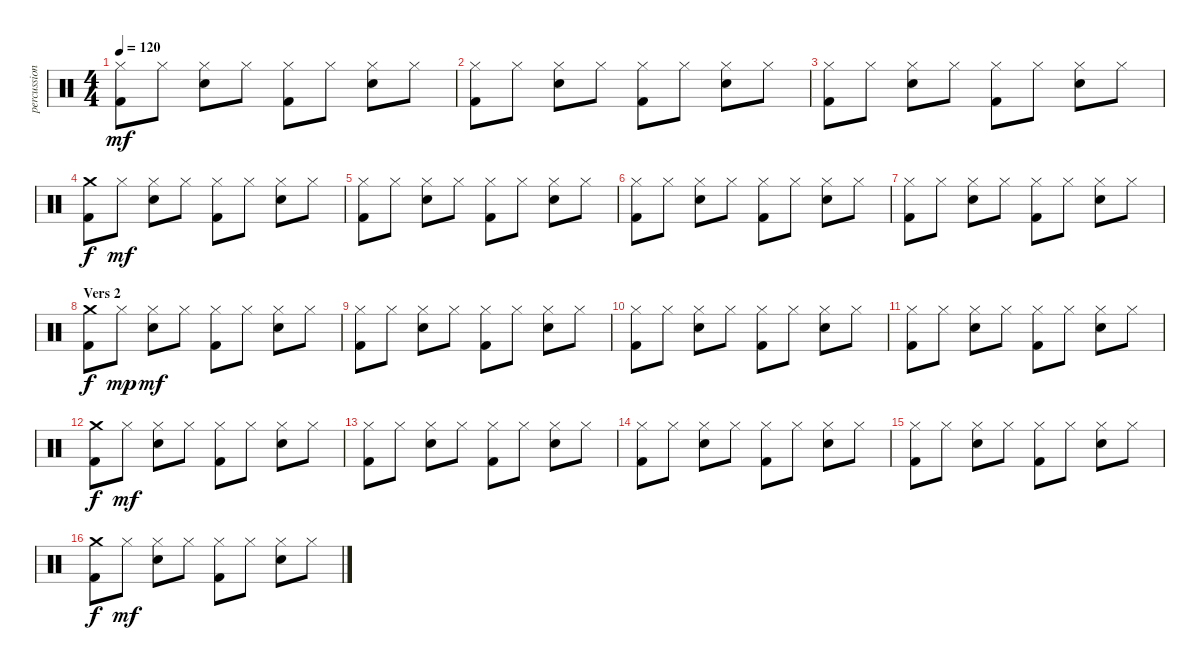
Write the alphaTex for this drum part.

\track ("percussion" "percussion") {instrument percussion}
\staff {score}
\articulation defaults
\ts (4 4)
\tempo 120
\clef neutral
\ks c
("Hi-Hat (closed)" "Kick (hit) 2").8{dy mf} "Hi-Hat (closed)".8 ("Hi-Hat (closed)" "Electric Snare (hit)").8 "Hi-Hat (closed)".8 ("Hi-Hat (closed)" "Kick (hit) 2").8 "Hi-Hat (closed)".8 ("Hi-Hat (closed)" "Electric Snare (hit)").8 "Hi-Hat (closed)".8 |
("Hi-Hat (closed)" "Kick (hit) 2").8 "Hi-Hat (closed)".8 ("Hi-Hat (closed)" "Electric Snare (hit)").8 "Hi-Hat (closed)".8 ("Hi-Hat (closed)" "Kick (hit) 2").8 "Hi-Hat (closed)".8 ("Hi-Hat (closed)" "Electric Snare (hit)").8 "Hi-Hat (closed)".8 |
("Hi-Hat (closed)" "Kick (hit) 2").8 "Hi-Hat (closed)".8 ("Hi-Hat (closed)" "Electric Snare (hit)").8 "Hi-Hat (closed)".8 ("Hi-Hat (closed)" "Kick (hit) 2").8 "Hi-Hat (closed)".8 ("Hi-Hat (closed)" "Electric Snare (hit)").8 "Hi-Hat (closed)".8 |
("Crash medium (hit)" "Kick (hit) 2").8{dy f} "Hi-Hat (closed)".8{dy mf} ("Hi-Hat (closed)" "Electric Snare (hit)").8 "Hi-Hat (closed)".8 ("Hi-Hat (closed)" "Kick (hit) 2").8 "Hi-Hat (closed)".8 ("Hi-Hat (closed)" "Electric Snare (hit)").8 "Hi-Hat (closed)".8 |
("Hi-Hat (closed)" "Kick (hit) 2").8 "Hi-Hat (closed)".8 ("Hi-Hat (closed)" "Electric Snare (hit)").8 "Hi-Hat (closed)".8 ("Hi-Hat (closed)" "Kick (hit) 2").8 "Hi-Hat (closed)".8 ("Hi-Hat (closed)" "Electric Snare (hit)").8 "Hi-Hat (closed)".8 |
("Hi-Hat (closed)" "Kick (hit) 2").8 "Hi-Hat (closed)".8 ("Hi-Hat (closed)" "Electric Snare (hit)").8 "Hi-Hat (closed)".8 ("Hi-Hat (closed)" "Kick (hit) 2").8 "Hi-Hat (closed)".8 ("Hi-Hat (closed)" "Electric Snare (hit)").8 "Hi-Hat (closed)".8 |
("Hi-Hat (closed)" "Kick (hit) 2").8 "Hi-Hat (closed)".8 ("Hi-Hat (closed)" "Electric Snare (hit)").8 "Hi-Hat (closed)".8 ("Hi-Hat (closed)" "Kick (hit) 2").8 "Hi-Hat (closed)".8 ("Hi-Hat (closed)" "Electric Snare (hit)").8 "Hi-Hat (closed)".8 |
\section ("" "Vers 2")
("Crash medium (hit)" "Kick (hit) 2").8{dy f} "Hi-Hat (closed)".8{dy mp} ("Hi-Hat (closed)" "Electric Snare (hit)").8{dy mf} "Hi-Hat (closed)".8 ("Hi-Hat (closed)" "Kick (hit) 2").8 "Hi-Hat (closed)".8 ("Hi-Hat (closed)" "Electric Snare (hit)").8 "Hi-Hat (closed)".8 |
("Hi-Hat (closed)" "Kick (hit) 2").8 "Hi-Hat (closed)".8 ("Hi-Hat (closed)" "Electric Snare (hit)").8 "Hi-Hat (closed)".8 ("Hi-Hat (closed)" "Kick (hit) 2").8 "Hi-Hat (closed)".8 ("Hi-Hat (closed)" "Electric Snare (hit)").8 "Hi-Hat (closed)".8 |
("Hi-Hat (closed)" "Kick (hit) 2").8 "Hi-Hat (closed)".8 ("Hi-Hat (closed)" "Electric Snare (hit)").8 "Hi-Hat (closed)".8 ("Hi-Hat (closed)" "Kick (hit) 2").8 "Hi-Hat (closed)".8 ("Hi-Hat (closed)" "Electric Snare (hit)").8 "Hi-Hat (closed)".8 |
("Hi-Hat (closed)" "Kick (hit) 2").8 "Hi-Hat (closed)".8 ("Hi-Hat (closed)" "Electric Snare (hit)").8 "Hi-Hat (closed)".8 ("Hi-Hat (closed)" "Kick (hit) 2").8 "Hi-Hat (closed)".8 ("Hi-Hat (closed)" "Electric Snare (hit)").8 "Hi-Hat (closed)".8 |
("Crash medium (hit)" "Kick (hit) 2").8{dy f} "Hi-Hat (closed)".8{dy mf} ("Hi-Hat (closed)" "Electric Snare (hit)").8 "Hi-Hat (closed)".8 ("Hi-Hat (closed)" "Kick (hit) 2").8 "Hi-Hat (closed)".8 ("Hi-Hat (closed)" "Electric Snare (hit)").8 "Hi-Hat (closed)".8 |
("Hi-Hat (closed)" "Kick (hit) 2").8 "Hi-Hat (closed)".8 ("Hi-Hat (closed)" "Electric Snare (hit)").8 "Hi-Hat (closed)".8 ("Hi-Hat (closed)" "Kick (hit) 2").8 "Hi-Hat (closed)".8 ("Hi-Hat (closed)" "Electric Snare (hit)").8 "Hi-Hat (closed)".8 |
("Hi-Hat (closed)" "Kick (hit) 2").8 "Hi-Hat (closed)".8 ("Hi-Hat (closed)" "Electric Snare (hit)").8 "Hi-Hat (closed)".8 ("Hi-Hat (closed)" "Kick (hit) 2").8 "Hi-Hat (closed)".8 ("Hi-Hat (closed)" "Electric Snare (hit)").8 "Hi-Hat (closed)".8 |
("Hi-Hat (closed)" "Kick (hit) 2").8 "Hi-Hat (closed)".8 ("Hi-Hat (closed)" "Electric Snare (hit)").8 "Hi-Hat (closed)".8 ("Hi-Hat (closed)" "Kick (hit) 2").8 "Hi-Hat (closed)".8 ("Hi-Hat (closed)" "Electric Snare (hit)").8 "Hi-Hat (closed)".8 |
("Crash medium (hit)" "Kick (hit) 2").8{dy f} "Hi-Hat (closed)".8{dy mf} ("Hi-Hat (closed)" "Electric Snare (hit)").8 "Hi-Hat (closed)".8 ("Hi-Hat (closed)" "Kick (hit) 2").8 "Hi-Hat (closed)".8 ("Hi-Hat (closed)" "Electric Snare (hit)").8 "Hi-Hat (closed)".8
